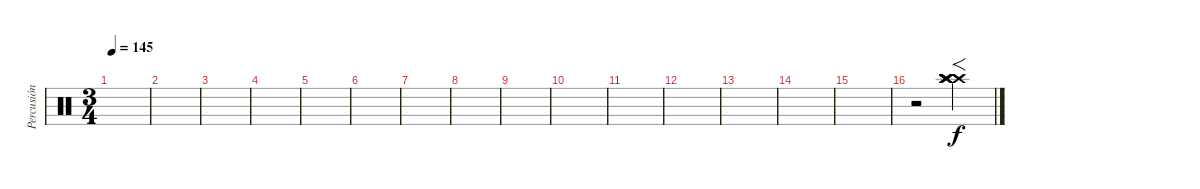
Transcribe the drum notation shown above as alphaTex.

\track ("Percusión" "Percusión") {instrument percussion}
\staff {score}
\articulation defaults
\ts (3 4)
\tempo 145
\clef neutral
\ks c
|
|
|
|
|
|
|
|
|
|
|
|
|
|
|
r.2 ("Crash high (hit)" "Crash high (hit)" "Crash high (hit)" "Crash high (hit)" "Crash high (hit)" "Crash high (hit)").4{f}
